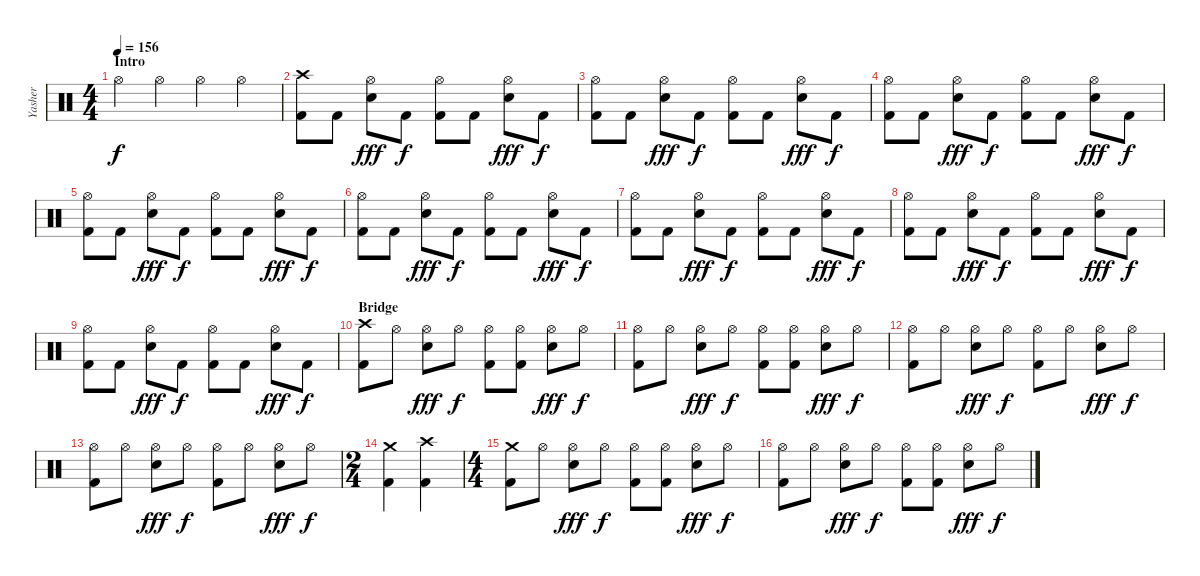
\track ("Yasher" "Yasher") {instrument percussion}
\staff {score}
\articulation defaults
\ts (4 4)
\section ("" "Intro")
\tempo 156
\clef neutral
\ks c "Hi-Hat (open)".4{dy f} "Hi-Hat (open)".4 "Hi-Hat (open)".4 "Hi-Hat (open)".4
|
("Crash high (hit)" "Kick (hit) 2").8 "Kick (hit) 2".8 ("Hi-Hat (open)" "Electric Snare (hit)").8{dy fff} "Kick (hit) 2".8{dy f} ("Hi-Hat (open)" "Kick (hit) 2").8 "Kick (hit) 2".8 ("Hi-Hat (open)" "Electric Snare (hit)").8{dy fff} "Kick (hit) 2".8{dy f} |
("Hi-Hat (open)" "Kick (hit) 2").8 "Kick (hit) 2".8 ("Hi-Hat (open)" "Electric Snare (hit)").8{dy fff} "Kick (hit) 2".8{dy f} ("Hi-Hat (open)" "Kick (hit) 2").8 "Kick (hit) 2".8 ("Hi-Hat (open)" "Electric Snare (hit)").8{dy fff} "Kick (hit) 2".8{dy f} |
("Hi-Hat (open)" "Kick (hit) 2").8 "Kick (hit) 2".8 ("Hi-Hat (open)" "Electric Snare (hit)").8{dy fff} "Kick (hit) 2".8{dy f} ("Hi-Hat (open)" "Kick (hit) 2").8 "Kick (hit) 2".8 ("Hi-Hat (open)" "Electric Snare (hit)").8{dy fff} "Kick (hit) 2".8{dy f} |
("Hi-Hat (open)" "Kick (hit) 2").8 "Kick (hit) 2".8 ("Hi-Hat (open)" "Electric Snare (hit)").8{dy fff} "Kick (hit) 2".8{dy f} ("Hi-Hat (open)" "Kick (hit) 2").8 "Kick (hit) 2".8 ("Hi-Hat (open)" "Electric Snare (hit)").8{dy fff} "Kick (hit) 2".8{dy f} |
("Hi-Hat (open)" "Kick (hit) 2").8 "Kick (hit) 2".8 ("Hi-Hat (open)" "Electric Snare (hit)").8{dy fff} "Kick (hit) 2".8{dy f} ("Hi-Hat (open)" "Kick (hit) 2").8 "Kick (hit) 2".8 ("Hi-Hat (open)" "Electric Snare (hit)").8{dy fff} "Kick (hit) 2".8{dy f} |
("Hi-Hat (open)" "Kick (hit) 2").8 "Kick (hit) 2".8 ("Hi-Hat (open)" "Electric Snare (hit)").8{dy fff} "Kick (hit) 2".8{dy f} ("Hi-Hat (open)" "Kick (hit) 2").8 "Kick (hit) 2".8 ("Hi-Hat (open)" "Electric Snare (hit)").8{dy fff} "Kick (hit) 2".8{dy f} |
("Hi-Hat (open)" "Kick (hit) 2").8 "Kick (hit) 2".8 ("Hi-Hat (open)" "Electric Snare (hit)").8{dy fff} "Kick (hit) 2".8{dy f} ("Hi-Hat (open)" "Kick (hit) 2").8 "Kick (hit) 2".8 ("Hi-Hat (open)" "Electric Snare (hit)").8{dy fff} "Kick (hit) 2".8{dy f} |
("Hi-Hat (open)" "Kick (hit) 2").8 "Kick (hit) 2".8 ("Hi-Hat (open)" "Electric Snare (hit)").8{dy fff} "Kick (hit) 2".8{dy f} ("Hi-Hat (open)" "Kick (hit) 2").8 "Kick (hit) 2".8 ("Hi-Hat (open)" "Electric Snare (hit)").8{dy fff} "Kick (hit) 2".8{dy f} |
\section ("" "Bridge")
("Crash high (hit)" "Kick (hit) 2").8 "Hi-Hat (open)".8 ("Hi-Hat (open)" "Electric Snare (hit)").8{dy fff} "Hi-Hat (open)".8{dy f} ("Hi-Hat (open)" "Kick (hit) 2").8 ("Hi-Hat (open)" "Kick (hit) 2").8 ("Hi-Hat (open)" "Electric Snare (hit)").8{dy fff} "Hi-Hat (open)".8{dy f} |
("Hi-Hat (open)" "Kick (hit) 2").8 "Hi-Hat (open)".8 ("Hi-Hat (open)" "Electric Snare (hit)").8{dy fff} "Hi-Hat (open)".8{dy f} ("Hi-Hat (open)" "Kick (hit) 2").8 ("Hi-Hat (open)" "Kick (hit) 2").8 ("Hi-Hat (open)" "Electric Snare (hit)").8{dy fff} "Hi-Hat (open)".8{dy f} |
("Hi-Hat (open)" "Kick (hit) 2").8 "Hi-Hat (open)".8 ("Hi-Hat (open)" "Electric Snare (hit)").8{dy fff} "Hi-Hat (open)".8{dy f} ("Hi-Hat (open)" "Kick (hit) 2").8 "Hi-Hat (open)".8 ("Hi-Hat (open)" "Electric Snare (hit)").8{dy fff} "Hi-Hat (open)".8{dy f} |
("Hi-Hat (open)" "Kick (hit) 2").8 "Hi-Hat (open)".8 ("Hi-Hat (open)" "Electric Snare (hit)").8{dy fff} "Hi-Hat (open)".8{dy f} ("Hi-Hat (open)" "Kick (hit) 2").8 "Hi-Hat (open)".8 ("Hi-Hat (open)" "Electric Snare (hit)").8{dy fff} "Hi-Hat (open)".8{dy f} |
\ts (2 4)
("Crash medium (hit)" "Kick (hit) 2").4 ("Crash high (hit)" "Kick (hit) 2").4 |
\ts (4 4)
("Crash medium (hit)" "Kick (hit) 2").8 "Hi-Hat (open)".8 ("Hi-Hat (open)" "Electric Snare (hit)").8{dy fff} "Hi-Hat (open)".8{dy f} ("Hi-Hat (open)" "Kick (hit) 2").8 ("Hi-Hat (open)" "Kick (hit) 2").8 ("Hi-Hat (open)" "Electric Snare (hit)").8{dy fff} "Hi-Hat (open)".8{dy f} |
("Hi-Hat (open)" "Kick (hit) 2").8 "Hi-Hat (open)".8 ("Hi-Hat (open)" "Electric Snare (hit)").8{dy fff} "Hi-Hat (open)".8{dy f} ("Hi-Hat (open)" "Kick (hit) 2").8 ("Hi-Hat (open)" "Kick (hit) 2").8 ("Hi-Hat (open)" "Electric Snare (hit)").8{dy fff} "Hi-Hat (open)".8{dy f}
